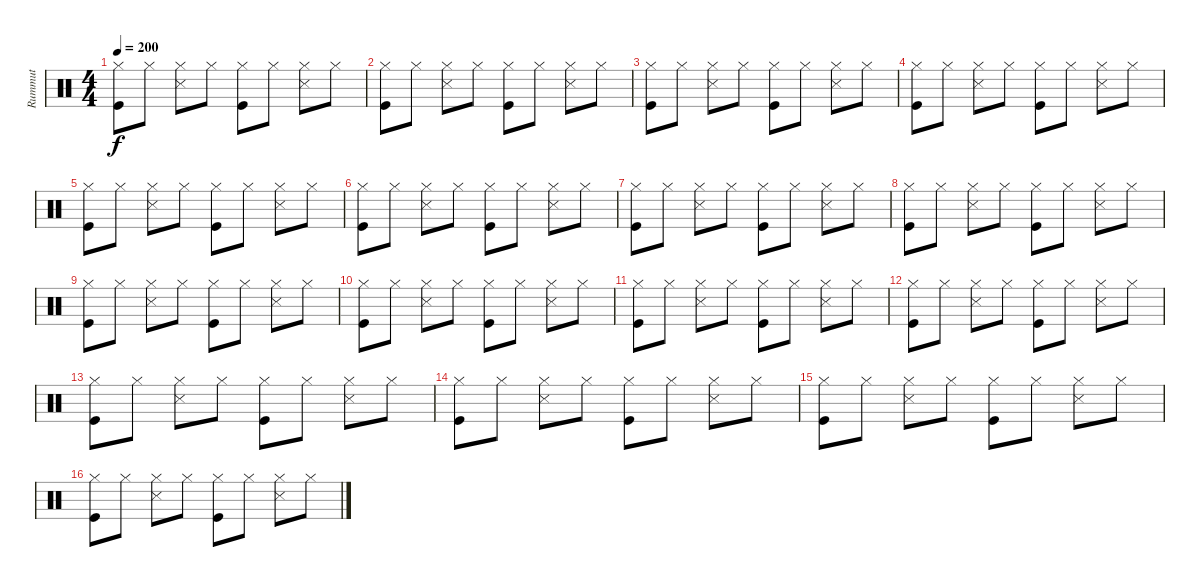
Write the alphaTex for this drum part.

\track ("Rummut" "Rummut") {instrument percussion}
\staff {score}
\articulation defaults
\ts (4 4)
\tempo 200
\clef neutral
\ks c
("Hi-Hat (closed)" "Kick (hit)").8{dy f} "Hi-Hat (closed)".8 ("Hi-Hat (closed)" "Snare (side stick) 3").8 "Hi-Hat (closed)".8 ("Hi-Hat (closed)" "Kick (hit)").8 "Hi-Hat (closed)".8 ("Hi-Hat (closed)" "Snare (side stick) 3").8 "Hi-Hat (closed)".8 |
("Hi-Hat (closed)" "Kick (hit)").8 "Hi-Hat (closed)".8 ("Hi-Hat (closed)" "Snare (side stick) 3").8 "Hi-Hat (closed)".8 ("Hi-Hat (closed)" "Kick (hit)").8 "Hi-Hat (closed)".8 ("Hi-Hat (closed)" "Snare (side stick) 3").8 "Hi-Hat (closed)".8 |
("Hi-Hat (closed)" "Kick (hit)").8 "Hi-Hat (closed)".8 ("Hi-Hat (closed)" "Snare (side stick) 3").8 "Hi-Hat (closed)".8 ("Hi-Hat (closed)" "Kick (hit)").8 "Hi-Hat (closed)".8 ("Hi-Hat (closed)" "Snare (side stick) 3").8 "Hi-Hat (closed)".8 |
("Hi-Hat (closed)" "Kick (hit)").8 "Hi-Hat (closed)".8 ("Hi-Hat (closed)" "Snare (side stick) 3").8 "Hi-Hat (closed)".8 ("Hi-Hat (closed)" "Kick (hit)").8 "Hi-Hat (closed)".8 ("Hi-Hat (closed)" "Snare (side stick) 3").8 "Hi-Hat (closed)".8 |
("Hi-Hat (closed)" "Kick (hit)").8 "Hi-Hat (closed)".8 ("Hi-Hat (closed)" "Snare (side stick) 3").8 "Hi-Hat (closed)".8 ("Hi-Hat (closed)" "Kick (hit)").8 "Hi-Hat (closed)".8 ("Hi-Hat (closed)" "Snare (side stick) 3").8 "Hi-Hat (closed)".8 |
("Hi-Hat (closed)" "Kick (hit)").8 "Hi-Hat (closed)".8 ("Hi-Hat (closed)" "Snare (side stick) 3").8 "Hi-Hat (closed)".8 ("Hi-Hat (closed)" "Kick (hit)").8 "Hi-Hat (closed)".8 ("Hi-Hat (closed)" "Snare (side stick) 3").8 "Hi-Hat (closed)".8 |
("Hi-Hat (closed)" "Kick (hit)").8 "Hi-Hat (closed)".8 ("Hi-Hat (closed)" "Snare (side stick) 3").8 "Hi-Hat (closed)".8 ("Hi-Hat (closed)" "Kick (hit)").8 "Hi-Hat (closed)".8 ("Hi-Hat (closed)" "Snare (side stick) 3").8 "Hi-Hat (closed)".8 |
("Hi-Hat (closed)" "Kick (hit)").8 "Hi-Hat (closed)".8 ("Hi-Hat (closed)" "Snare (side stick) 3").8 "Hi-Hat (closed)".8 ("Hi-Hat (closed)" "Kick (hit)").8 "Hi-Hat (closed)".8 ("Hi-Hat (closed)" "Snare (side stick) 3").8 "Hi-Hat (closed)".8 |
("Hi-Hat (closed)" "Kick (hit)").8 "Hi-Hat (closed)".8 ("Hi-Hat (closed)" "Snare (side stick) 3").8 "Hi-Hat (closed)".8 ("Hi-Hat (closed)" "Kick (hit)").8 "Hi-Hat (closed)".8 ("Hi-Hat (closed)" "Snare (side stick) 3").8 "Hi-Hat (closed)".8 |
("Hi-Hat (closed)" "Kick (hit)").8 "Hi-Hat (closed)".8 ("Hi-Hat (closed)" "Snare (side stick) 3").8 "Hi-Hat (closed)".8 ("Hi-Hat (closed)" "Kick (hit)").8 "Hi-Hat (closed)".8 ("Hi-Hat (closed)" "Snare (side stick) 3").8 "Hi-Hat (closed)".8 |
("Hi-Hat (closed)" "Kick (hit)").8 "Hi-Hat (closed)".8 ("Hi-Hat (closed)" "Snare (side stick) 3").8 "Hi-Hat (closed)".8 ("Hi-Hat (closed)" "Kick (hit)").8 "Hi-Hat (closed)".8 ("Hi-Hat (closed)" "Snare (side stick) 3").8 "Hi-Hat (closed)".8 |
("Hi-Hat (closed)" "Kick (hit)").8 "Hi-Hat (closed)".8 ("Hi-Hat (closed)" "Snare (side stick) 3").8 "Hi-Hat (closed)".8 ("Hi-Hat (closed)" "Kick (hit)").8 "Hi-Hat (closed)".8 ("Hi-Hat (closed)" "Snare (side stick) 3").8 "Hi-Hat (closed)".8 |
("Hi-Hat (closed)" "Kick (hit)").8 "Hi-Hat (closed)".8 ("Hi-Hat (closed)" "Snare (side stick) 3").8 "Hi-Hat (closed)".8 ("Hi-Hat (closed)" "Kick (hit)").8 "Hi-Hat (closed)".8 ("Hi-Hat (closed)" "Snare (side stick) 3").8 "Hi-Hat (closed)".8 |
("Hi-Hat (closed)" "Kick (hit)").8 "Hi-Hat (closed)".8 ("Hi-Hat (closed)" "Snare (side stick) 3").8 "Hi-Hat (closed)".8 ("Hi-Hat (closed)" "Kick (hit)").8 "Hi-Hat (closed)".8 ("Hi-Hat (closed)" "Snare (side stick) 3").8 "Hi-Hat (closed)".8 |
("Hi-Hat (closed)" "Kick (hit)").8 "Hi-Hat (closed)".8 ("Hi-Hat (closed)" "Snare (side stick) 3").8 "Hi-Hat (closed)".8 ("Hi-Hat (closed)" "Kick (hit)").8 "Hi-Hat (closed)".8 ("Hi-Hat (closed)" "Snare (side stick) 3").8 "Hi-Hat (closed)".8 |
("Hi-Hat (closed)" "Kick (hit)").8 "Hi-Hat (closed)".8 ("Hi-Hat (closed)" "Snare (side stick) 3").8 "Hi-Hat (closed)".8 ("Hi-Hat (closed)" "Kick (hit)").8 "Hi-Hat (closed)".8 ("Hi-Hat (closed)" "Snare (side stick) 3").8 "Hi-Hat (closed)".8
